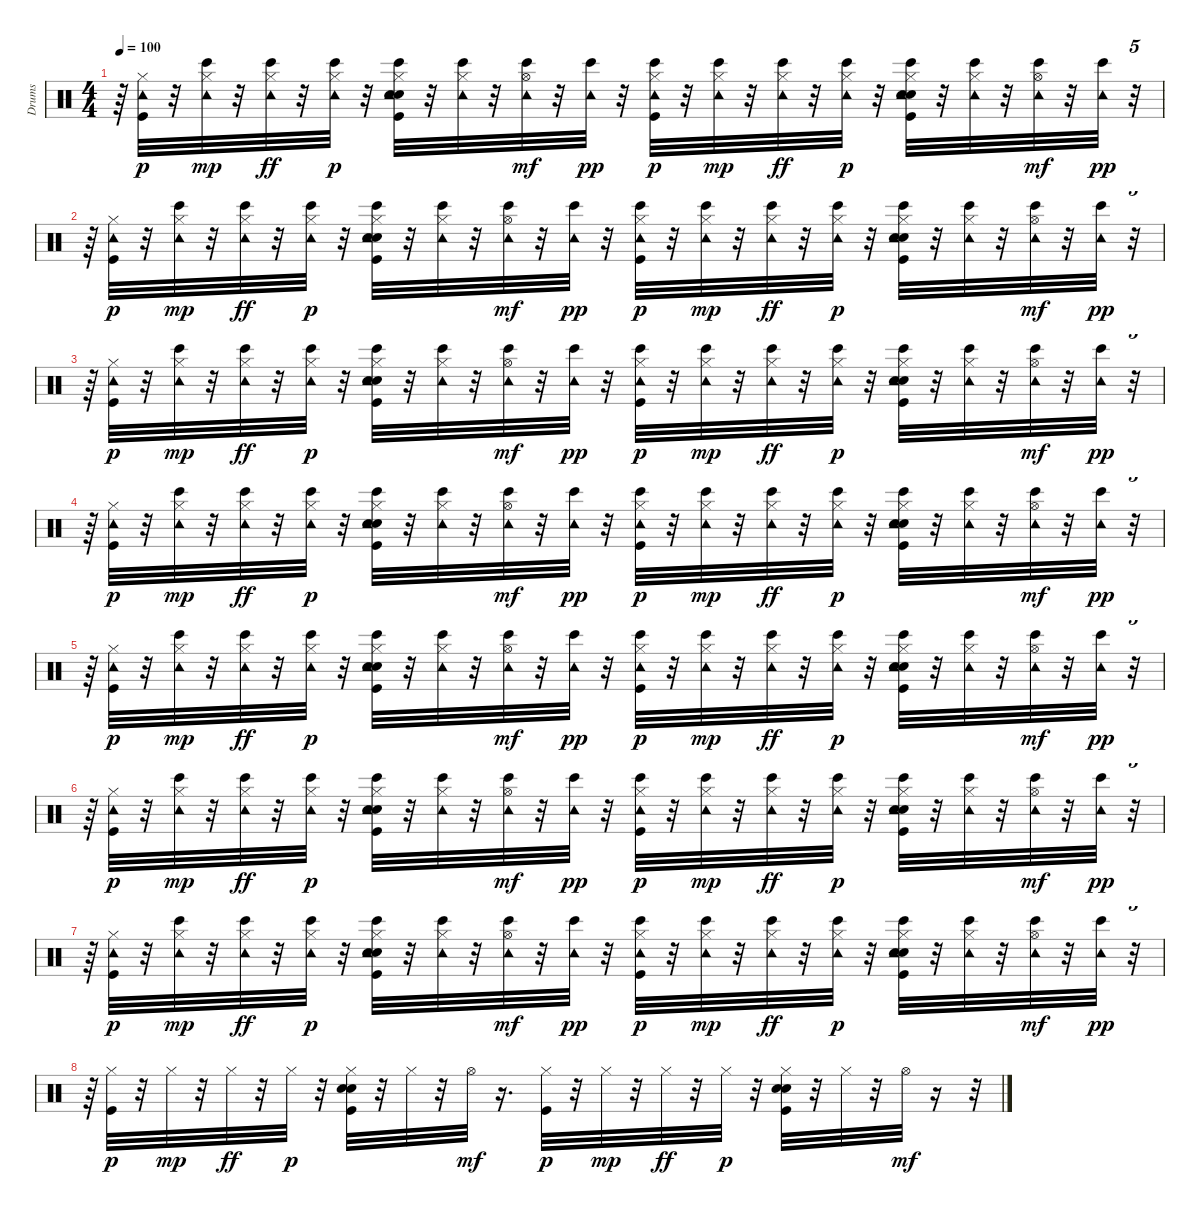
\track ("Drums" "Drums") {instrument percussion}
\staff {score}
\articulation defaults
\ts (4 4)
\tempo 100
\clef neutral
\ks c
r.64{dy pp} ("Tambourine (hit)" "Kick (hit)" "Hi-Hat (closed)").32{dy p} r.32 ("Bongo High (hit)" "Tambourine (hit)" "Hi-Hat (closed)").32{dy mp} r.32 ("Bongo High (hit)" "Tambourine (hit)" "Hi-Hat (closed)").32{dy ff} r.32 ("Bongo High (hit)" "Tambourine (hit)" "Hi-Hat (closed)").32{dy p} r.32 ("Hand Clap (hit)" "Snare (hit) 2" "Bongo High (hit)" "Tambourine (hit)" "Kick (hit)" "Hi-Hat (closed)").32 r.32 ("Bongo High (hit)" "Tambourine (hit)" "Hi-Hat (closed)").32 r.32 ("Bongo High (hit)" "Tambourine (hit)" "Hi-Hat (open)").32{dy mf} r.32 ("Bongo High (hit)" "Tambourine (hit)").32{dy pp} r.32 ("Bongo High (hit)" "Tambourine (hit)" "Kick (hit)" "Hi-Hat (closed)").32{dy p} r.32 ("Bongo High (hit)" "Tambourine (hit)" "Hi-Hat (closed)").32{dy mp} r.32 ("Bongo High (hit)" "Tambourine (hit)" "Hi-Hat (closed)").32{dy ff} r.32 ("Bongo High (hit)" "Tambourine (hit)" "Hi-Hat (closed)").32{dy p} r.32 ("Hand Clap (hit)" "Snare (hit) 2" "Bongo High (hit)" "Tambourine (hit)" "Kick (hit)" "Hi-Hat (closed)").32 r.32 ("Bongo High (hit)" "Tambourine (hit)" "Hi-Hat (closed)").32 r.32 ("Bongo High (hit)" "Tambourine (hit)" "Hi-Hat (open)").32{dy mf} r.32 ("Bongo High (hit)" "Tambourine (hit)").32{dy pp} r.32{tu (5 4)} |
r.64 ("Tambourine (hit)" "Kick (hit)" "Hi-Hat (closed)").32{dy p} r.32 ("Bongo High (hit)" "Tambourine (hit)" "Hi-Hat (closed)").32{dy mp} r.32 ("Bongo High (hit)" "Tambourine (hit)" "Hi-Hat (closed)").32{dy ff} r.32 ("Bongo High (hit)" "Tambourine (hit)" "Hi-Hat (closed)").32{dy p} r.32 ("Hand Clap (hit)" "Snare (hit) 2" "Bongo High (hit)" "Tambourine (hit)" "Kick (hit)" "Hi-Hat (closed)").32 r.32 ("Bongo High (hit)" "Tambourine (hit)" "Hi-Hat (closed)").32 r.32 ("Bongo High (hit)" "Tambourine (hit)" "Hi-Hat (open)").32{dy mf} r.32 ("Bongo High (hit)" "Tambourine (hit)").32{dy pp} r.32 ("Bongo High (hit)" "Tambourine (hit)" "Kick (hit)" "Hi-Hat (closed)").32{dy p} r.32 ("Bongo High (hit)" "Tambourine (hit)" "Hi-Hat (closed)").32{dy mp} r.32 ("Bongo High (hit)" "Tambourine (hit)" "Hi-Hat (closed)").32{dy ff} r.32 ("Bongo High (hit)" "Tambourine (hit)" "Hi-Hat (closed)").32{dy p} r.32 ("Hand Clap (hit)" "Snare (hit) 2" "Bongo High (hit)" "Tambourine (hit)" "Kick (hit)" "Hi-Hat (closed)").32 r.32 ("Bongo High (hit)" "Tambourine (hit)" "Hi-Hat (closed)").32 r.32 ("Bongo High (hit)" "Tambourine (hit)" "Hi-Hat (open)").32{dy mf} r.32 ("Bongo High (hit)" "Tambourine (hit)").32{dy pp} r.32{tu (5 4)} |
r.64 ("Tambourine (hit)" "Kick (hit)" "Hi-Hat (closed)").32{dy p} r.32 ("Bongo High (hit)" "Tambourine (hit)" "Hi-Hat (closed)").32{dy mp} r.32 ("Bongo High (hit)" "Tambourine (hit)" "Hi-Hat (closed)").32{dy ff} r.32 ("Bongo High (hit)" "Tambourine (hit)" "Hi-Hat (closed)").32{dy p} r.32 ("Hand Clap (hit)" "Snare (hit) 2" "Bongo High (hit)" "Tambourine (hit)" "Kick (hit)" "Hi-Hat (closed)").32 r.32 ("Bongo High (hit)" "Tambourine (hit)" "Hi-Hat (closed)").32 r.32 ("Bongo High (hit)" "Tambourine (hit)" "Hi-Hat (open)").32{dy mf} r.32 ("Bongo High (hit)" "Tambourine (hit)").32{dy pp} r.32 ("Bongo High (hit)" "Tambourine (hit)" "Kick (hit)" "Hi-Hat (closed)").32{dy p} r.32 ("Bongo High (hit)" "Tambourine (hit)" "Hi-Hat (closed)").32{dy mp} r.32 ("Bongo High (hit)" "Tambourine (hit)" "Hi-Hat (closed)").32{dy ff} r.32 ("Bongo High (hit)" "Tambourine (hit)" "Hi-Hat (closed)").32{dy p} r.32 ("Hand Clap (hit)" "Snare (hit) 2" "Bongo High (hit)" "Tambourine (hit)" "Kick (hit)" "Hi-Hat (closed)").32 r.32 ("Bongo High (hit)" "Tambourine (hit)" "Hi-Hat (closed)").32 r.32 ("Bongo High (hit)" "Tambourine (hit)" "Hi-Hat (open)").32{dy mf} r.32 ("Bongo High (hit)" "Tambourine (hit)").32{dy pp} r.32{tu (5 4)} |
r.64 ("Tambourine (hit)" "Kick (hit)" "Hi-Hat (closed)").32{dy p} r.32 ("Bongo High (hit)" "Tambourine (hit)" "Hi-Hat (closed)").32{dy mp} r.32 ("Bongo High (hit)" "Tambourine (hit)" "Hi-Hat (closed)").32{dy ff} r.32 ("Bongo High (hit)" "Tambourine (hit)" "Hi-Hat (closed)").32{dy p} r.32 ("Hand Clap (hit)" "Snare (hit) 2" "Bongo High (hit)" "Tambourine (hit)" "Kick (hit)" "Hi-Hat (closed)").32 r.32 ("Bongo High (hit)" "Tambourine (hit)" "Hi-Hat (closed)").32 r.32 ("Bongo High (hit)" "Tambourine (hit)" "Hi-Hat (open)").32{dy mf} r.32 ("Bongo High (hit)" "Tambourine (hit)").32{dy pp} r.32 ("Bongo High (hit)" "Tambourine (hit)" "Kick (hit)" "Hi-Hat (closed)").32{dy p} r.32 ("Bongo High (hit)" "Tambourine (hit)" "Hi-Hat (closed)").32{dy mp} r.32 ("Bongo High (hit)" "Tambourine (hit)" "Hi-Hat (closed)").32{dy ff} r.32 ("Bongo High (hit)" "Tambourine (hit)" "Hi-Hat (closed)").32{dy p} r.32 ("Hand Clap (hit)" "Snare (hit) 2" "Bongo High (hit)" "Tambourine (hit)" "Kick (hit)" "Hi-Hat (closed)").32 r.32 ("Bongo High (hit)" "Tambourine (hit)" "Hi-Hat (closed)").32 r.32 ("Bongo High (hit)" "Tambourine (hit)" "Hi-Hat (open)").32{dy mf} r.32 ("Bongo High (hit)" "Tambourine (hit)").32{dy pp} r.32{tu (5 4)} |
r.64 ("Tambourine (hit)" "Kick (hit)" "Hi-Hat (closed)").32{dy p} r.32 ("Bongo High (hit)" "Tambourine (hit)" "Hi-Hat (closed)").32{dy mp} r.32 ("Bongo High (hit)" "Tambourine (hit)" "Hi-Hat (closed)").32{dy ff} r.32 ("Bongo High (hit)" "Tambourine (hit)" "Hi-Hat (closed)").32{dy p} r.32 ("Hand Clap (hit)" "Snare (hit) 2" "Bongo High (hit)" "Tambourine (hit)" "Kick (hit)" "Hi-Hat (closed)").32 r.32 ("Bongo High (hit)" "Tambourine (hit)" "Hi-Hat (closed)").32 r.32 ("Bongo High (hit)" "Tambourine (hit)" "Hi-Hat (open)").32{dy mf} r.32 ("Bongo High (hit)" "Tambourine (hit)").32{dy pp} r.32 ("Bongo High (hit)" "Tambourine (hit)" "Kick (hit)" "Hi-Hat (closed)").32{dy p} r.32 ("Bongo High (hit)" "Tambourine (hit)" "Hi-Hat (closed)").32{dy mp} r.32 ("Bongo High (hit)" "Tambourine (hit)" "Hi-Hat (closed)").32{dy ff} r.32 ("Bongo High (hit)" "Tambourine (hit)" "Hi-Hat (closed)").32{dy p} r.32 ("Hand Clap (hit)" "Snare (hit) 2" "Bongo High (hit)" "Tambourine (hit)" "Kick (hit)" "Hi-Hat (closed)").32 r.32 ("Bongo High (hit)" "Tambourine (hit)" "Hi-Hat (closed)").32 r.32 ("Bongo High (hit)" "Tambourine (hit)" "Hi-Hat (open)").32{dy mf} r.32 ("Bongo High (hit)" "Tambourine (hit)").32{dy pp} r.32{tu (5 4)} |
r.64 ("Tambourine (hit)" "Kick (hit)" "Hi-Hat (closed)").32{dy p} r.32 ("Bongo High (hit)" "Tambourine (hit)" "Hi-Hat (closed)").32{dy mp} r.32 ("Bongo High (hit)" "Tambourine (hit)" "Hi-Hat (closed)").32{dy ff} r.32 ("Bongo High (hit)" "Tambourine (hit)" "Hi-Hat (closed)").32{dy p} r.32 ("Hand Clap (hit)" "Snare (hit) 2" "Bongo High (hit)" "Tambourine (hit)" "Kick (hit)" "Hi-Hat (closed)").32 r.32 ("Bongo High (hit)" "Tambourine (hit)" "Hi-Hat (closed)").32 r.32 ("Bongo High (hit)" "Tambourine (hit)" "Hi-Hat (open)").32{dy mf} r.32 ("Bongo High (hit)" "Tambourine (hit)").32{dy pp} r.32 ("Bongo High (hit)" "Tambourine (hit)" "Kick (hit)" "Hi-Hat (closed)").32{dy p} r.32 ("Bongo High (hit)" "Tambourine (hit)" "Hi-Hat (closed)").32{dy mp} r.32 ("Bongo High (hit)" "Tambourine (hit)" "Hi-Hat (closed)").32{dy ff} r.32 ("Bongo High (hit)" "Tambourine (hit)" "Hi-Hat (closed)").32{dy p} r.32 ("Hand Clap (hit)" "Snare (hit) 2" "Bongo High (hit)" "Tambourine (hit)" "Kick (hit)" "Hi-Hat (closed)").32 r.32 ("Bongo High (hit)" "Tambourine (hit)" "Hi-Hat (closed)").32 r.32 ("Bongo High (hit)" "Tambourine (hit)" "Hi-Hat (open)").32{dy mf} r.32 ("Bongo High (hit)" "Tambourine (hit)").32{dy pp} r.32{tu (5 4)} |
r.64 ("Tambourine (hit)" "Kick (hit)" "Hi-Hat (closed)").32{dy p} r.32 ("Bongo High (hit)" "Tambourine (hit)" "Hi-Hat (closed)").32{dy mp} r.32 ("Bongo High (hit)" "Tambourine (hit)" "Hi-Hat (closed)").32{dy ff} r.32 ("Bongo High (hit)" "Tambourine (hit)" "Hi-Hat (closed)").32{dy p} r.32 ("Hand Clap (hit)" "Snare (hit) 2" "Bongo High (hit)" "Tambourine (hit)" "Kick (hit)" "Hi-Hat (closed)").32 r.32 ("Bongo High (hit)" "Tambourine (hit)" "Hi-Hat (closed)").32 r.32 ("Bongo High (hit)" "Tambourine (hit)" "Hi-Hat (open)").32{dy mf} r.32 ("Bongo High (hit)" "Tambourine (hit)").32{dy pp} r.32 ("Bongo High (hit)" "Tambourine (hit)" "Kick (hit)" "Hi-Hat (closed)").32{dy p} r.32 ("Bongo High (hit)" "Tambourine (hit)" "Hi-Hat (closed)").32{dy mp} r.32 ("Bongo High (hit)" "Tambourine (hit)" "Hi-Hat (closed)").32{dy ff} r.32 ("Bongo High (hit)" "Tambourine (hit)" "Hi-Hat (closed)").32{dy p} r.32 ("Hand Clap (hit)" "Snare (hit) 2" "Bongo High (hit)" "Tambourine (hit)" "Kick (hit)" "Hi-Hat (closed)").32 r.32 ("Bongo High (hit)" "Tambourine (hit)" "Hi-Hat (closed)").32 r.32 ("Bongo High (hit)" "Tambourine (hit)" "Hi-Hat (open)").32{dy mf} r.32 ("Bongo High (hit)" "Tambourine (hit)").32{dy pp} r.32{tu (5 4)} |
r.64 ("Kick (hit)" "Hi-Hat (closed)").32{dy p} r.32 "Hi-Hat (closed)".32{dy mp} r.32 "Hi-Hat (closed)".32{dy ff} r.32 "Hi-Hat (closed)".32{dy p} r.32 ("Hand Clap (hit)" "Snare (hit) 2" "Kick (hit)" "Hi-Hat (closed)").32 r.32 "Hi-Hat (closed)".32 r.32 "Hi-Hat (open)".32{dy mf} r.16{d} ("Kick (hit)" "Hi-Hat (closed)").32{dy p} r.32 "Hi-Hat (closed)".32{dy mp} r.32 "Hi-Hat (closed)".32{dy ff} r.32 "Hi-Hat (closed)".32{dy p} r.32 ("Hand Clap (hit)" "Snare (hit) 2" "Kick (hit)" "Hi-Hat (closed)").32 r.32 "Hi-Hat (closed)".32 r.32 "Hi-Hat (open)".32{dy mf} r.16 r.32{tu (5 4)}
